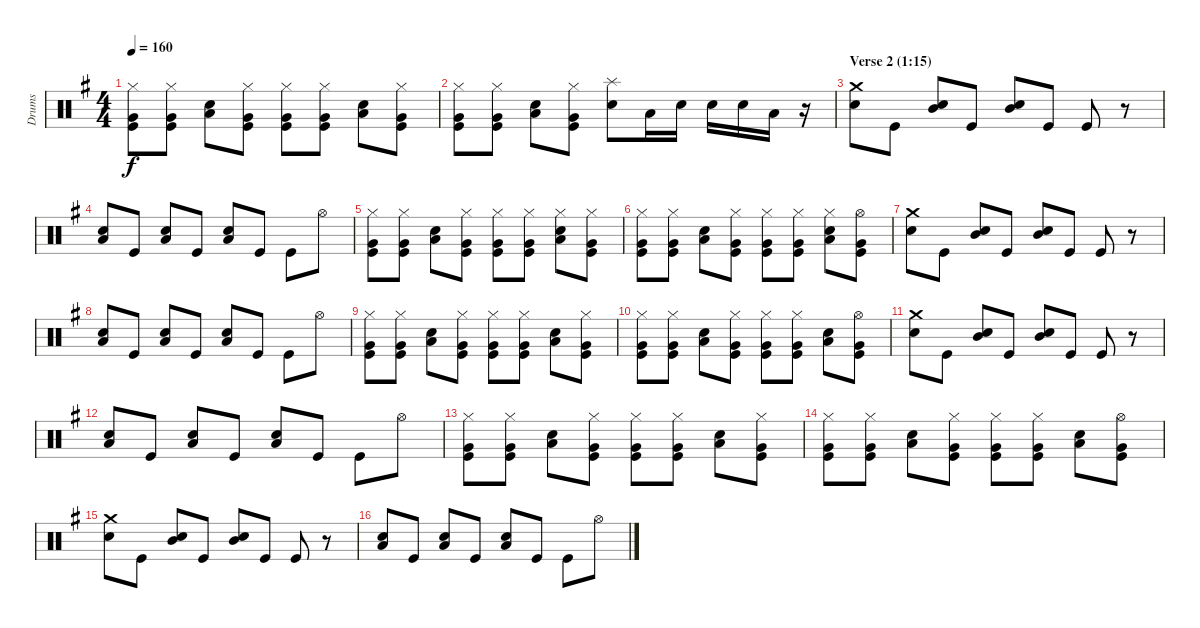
\track ("Drums" "Drums") {instrument percussion}
\staff {score}
\articulation defaults
\ts (4 4)
\tempo 160
\clef neutral
\ks g
("Hi-Hat (closed)" "Very Low Tom (hit)" "Kick (hit)").8{dy f} ("Hi-Hat (closed)" "Very Low Tom (hit)" "Kick (hit)").8 ("Snare (hit) 2" "Low Tom (hit)").8 ("Hi-Hat (closed)" "Very Low Tom (hit)" "Kick (hit)").8 ("Hi-Hat (closed)" "Very Low Tom (hit)" "Kick (hit)").8 ("Hi-Hat (closed)" "Very Low Tom (hit)" "Kick (hit)").8 ("Snare (hit) 2" "Low Tom (hit)").8 ("Hi-Hat (closed)" "Very Low Tom (hit)" "Kick (hit)").8 |
("Hi-Hat (closed)" "Very Low Tom (hit)" "Kick (hit)").8 ("Hi-Hat (closed)" "Very Low Tom (hit)" "Kick (hit)").8 ("Snare (hit) 2" "Low Tom (hit)").8 ("Hi-Hat (closed)" "Very Low Tom (hit)" "Kick (hit)").8 ("Splash (hit)" "Snare (hit) 2").8 "Low Tom (hit)".16 "Snare (hit) 2".16 "Snare (hit) 2".16 "Snare (hit) 2".16 "Low Tom (hit)".16 r.16 |
\section ("" "Verse 2 (1:15)")
("Crash medium (hit)" "Snare (hit) 2").8 "Kick (hit)".8 ("Snare (hit) 2" "Mid Tom (hit)").8 "Kick (hit)".8 ("Snare (hit) 2" "Mid Tom (hit)").8 "Kick (hit)".8 "Kick (hit)".8 r.8 |
("Snare (hit) 2" "Low Tom (hit)").8 "Kick (hit)".8 ("Snare (hit) 2" "Low Tom (hit)").8 "Kick (hit)".8 ("Snare (hit) 2" "Low Tom (hit)").8 "Kick (hit)".8 "Kick (hit)".8 "Hi-Hat (open)".8 |
("Hi-Hat (closed)" "Very Low Tom (hit)" "Kick (hit)").8 ("Hi-Hat (closed)" "Very Low Tom (hit)" "Kick (hit)").8 ("Snare (hit) 2" "Low Tom (hit)").8 ("Hi-Hat (closed)" "Very Low Tom (hit)" "Kick (hit)").8 ("Hi-Hat (closed)" "Very Low Tom (hit)" "Kick (hit)").8 ("Hi-Hat (closed)" "Very Low Tom (hit)" "Kick (hit)").8 ("Hi-Hat (closed)" "Snare (hit) 2" "Low Tom (hit)").8 ("Hi-Hat (closed)" "Very Low Tom (hit)" "Kick (hit)").8 |
("Hi-Hat (closed)" "Very Low Tom (hit)" "Kick (hit)").8 ("Hi-Hat (closed)" "Very Low Tom (hit)" "Kick (hit)").8 ("Snare (hit) 2" "Low Tom (hit)").8 ("Hi-Hat (closed)" "Very Low Tom (hit)" "Kick (hit)").8 ("Hi-Hat (closed)" "Very Low Tom (hit)" "Kick (hit)").8 ("Hi-Hat (closed)" "Very Low Tom (hit)" "Kick (hit)").8 ("Hi-Hat (closed)" "Snare (hit) 2" "Low Tom (hit)").8 ("Hi-Hat (open)" "Very Low Tom (hit)" "Kick (hit)").8 |
("Crash medium (hit)" "Snare (hit) 2").8 "Kick (hit)".8 ("Snare (hit) 2" "Mid Tom (hit)").8 "Kick (hit)".8 ("Snare (hit) 2" "Mid Tom (hit)").8 "Kick (hit)".8 "Kick (hit)".8 r.8 |
("Snare (hit) 2" "Low Tom (hit)").8 "Kick (hit)".8 ("Snare (hit) 2" "Low Tom (hit)").8 "Kick (hit)".8 ("Snare (hit) 2" "Low Tom (hit)").8 "Kick (hit)".8 "Kick (hit)".8 "Hi-Hat (open)".8 |
("Hi-Hat (closed)" "Very Low Tom (hit)" "Kick (hit)").8 ("Hi-Hat (closed)" "Very Low Tom (hit)" "Kick (hit)").8 ("Snare (hit) 2" "Low Tom (hit)").8 ("Hi-Hat (closed)" "Very Low Tom (hit)" "Kick (hit)").8 ("Hi-Hat (closed)" "Very Low Tom (hit)" "Kick (hit)").8 ("Hi-Hat (closed)" "Very Low Tom (hit)" "Kick (hit)").8 ("Snare (hit) 2" "Low Tom (hit)").8 ("Hi-Hat (closed)" "Very Low Tom (hit)" "Kick (hit)").8 |
("Hi-Hat (closed)" "Very Low Tom (hit)" "Kick (hit)").8 ("Hi-Hat (closed)" "Very Low Tom (hit)" "Kick (hit)").8 ("Snare (hit) 2" "Low Tom (hit)").8 ("Hi-Hat (closed)" "Very Low Tom (hit)" "Kick (hit)").8 ("Hi-Hat (closed)" "Very Low Tom (hit)" "Kick (hit)").8 ("Hi-Hat (closed)" "Very Low Tom (hit)" "Kick (hit)").8 ("Snare (hit) 2" "Low Tom (hit)").8 ("Hi-Hat (open)" "Very Low Tom (hit)" "Kick (hit)").8 |
("Crash medium (hit)" "Snare (hit) 2").8 "Kick (hit)".8 ("Snare (hit) 2" "Mid Tom (hit)").8 "Kick (hit)".8 ("Snare (hit) 2" "Mid Tom (hit)").8 "Kick (hit)".8 "Kick (hit)".8 r.8 |
("Snare (hit) 2" "Low Tom (hit)").8 "Kick (hit)".8 ("Snare (hit) 2" "Low Tom (hit)").8 "Kick (hit)".8 ("Snare (hit) 2" "Low Tom (hit)").8 "Kick (hit)".8 "Kick (hit)".8 "Hi-Hat (open)".8 |
("Hi-Hat (closed)" "Very Low Tom (hit)" "Kick (hit)").8 ("Hi-Hat (closed)" "Very Low Tom (hit)" "Kick (hit)").8 ("Snare (hit) 2" "Low Tom (hit)").8 ("Hi-Hat (closed)" "Very Low Tom (hit)" "Kick (hit)").8 ("Hi-Hat (closed)" "Very Low Tom (hit)" "Kick (hit)").8 ("Hi-Hat (closed)" "Very Low Tom (hit)" "Kick (hit)").8 ("Snare (hit) 2" "Low Tom (hit)").8 ("Hi-Hat (closed)" "Very Low Tom (hit)" "Kick (hit)").8 |
("Hi-Hat (closed)" "Very Low Tom (hit)" "Kick (hit)").8 ("Hi-Hat (closed)" "Very Low Tom (hit)" "Kick (hit)").8 ("Snare (hit) 2" "Low Tom (hit)").8 ("Hi-Hat (closed)" "Very Low Tom (hit)" "Kick (hit)").8 ("Hi-Hat (closed)" "Very Low Tom (hit)" "Kick (hit)").8 ("Hi-Hat (closed)" "Very Low Tom (hit)" "Kick (hit)").8 ("Snare (hit) 2" "Low Tom (hit)").8 ("Hi-Hat (open)" "Very Low Tom (hit)" "Kick (hit)").8 |
("Crash medium (hit)" "Snare (hit) 2").8 "Kick (hit)".8 ("Snare (hit) 2" "Mid Tom (hit)").8 "Kick (hit)".8 ("Snare (hit) 2" "Mid Tom (hit)").8 "Kick (hit)".8 "Kick (hit)".8 r.8 |
("Snare (hit) 2" "Low Tom (hit)").8 "Kick (hit)".8 ("Snare (hit) 2" "Low Tom (hit)").8 "Kick (hit)".8 ("Snare (hit) 2" "Low Tom (hit)").8 "Kick (hit)".8 "Kick (hit)".8 "Hi-Hat (open)".8
